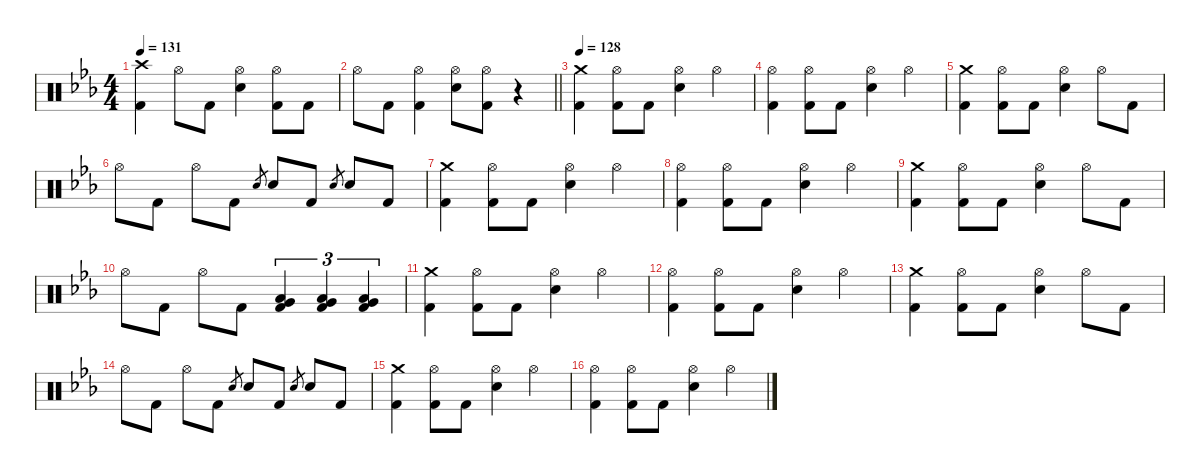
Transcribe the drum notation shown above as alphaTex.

\defaultSystemsLayout 4
\hideDynamics
\bracketExtendMode nobrackets
\singleTrackTrackNamePolicy hidden
\multiTrackTrackNamePolicy hidden
\firstSystemTrackNameMode fullname
\firstSystemTrackNameOrientation horizontal
\otherSystemsTrackNameOrientation horizontal
\track ("Drums" "drm.") {instrument percussion}
\staff {score}
\articulation defaults
\ts (4 4)
\tempo 131
\clef neutral
\ks cminor
("Crash high (hit)"{acc forcenatural} "Kick (hit) 2"{acc forcenatural}).4{dy f} "Hi-Hat (open)"{acc forcenatural}.8{dy mp} "Kick (hit) 2"{acc forcenatural}.8{dy f} ("Hi-Hat (open)"{acc forcenatural} "Snare (hit) 2"{acc forcenatural}).4{dy mp} ("Hi-Hat (open)"{acc forcenatural} "Kick (hit) 2"{acc forcenatural}).8 "Kick (hit) 2"{acc forcenatural}.8{dy f} |
\barLineRight lightlight "Hi-Hat (open)"{acc forcenatural}.8{dy mp} "Kick (hit) 2"{acc forcenatural}.8{dy f}
("Hi-Hat (open)"{acc forcenatural} "Kick (hit) 2"{acc forcenatural}).4{dy mp} ("Hi-Hat (open)"{acc forcenatural} "Snare (hit) 2"{acc forcenatural}).8 ("Hi-Hat (open)"{acc forcenatural} "Kick (hit) 2"{acc forcenatural}).8 r.4 |
\tempo 128
("Crash medium (hit)"{acc forcenatural} "Kick (hit) 2"{acc forcenatural}).4{dy f} ("Hi-Hat (open)"{acc forcenatural} "Kick (hit) 2"{acc forcenatural}).8{dy mp} "Kick (hit) 2"{acc forcenatural}.8{dy f} ("Hi-Hat (open)"{acc forcenatural} "Snare (hit) 2"{acc forcenatural}).4{dy mp} "Hi-Hat (open)"{acc forcenatural}.4 |
("Hi-Hat (open)"{acc forcenatural} "Kick (hit) 2"{acc forcenatural}).4 ("Hi-Hat (open)"{acc forcenatural} "Kick (hit) 2"{acc forcenatural}).8 "Kick (hit) 2"{acc forcenatural}.8{dy f} ("Hi-Hat (open)"{acc forcenatural} "Snare (hit) 2"{acc forcenatural}).4{dy mp} "Hi-Hat (open)"{acc forcenatural}.4 |
("Crash medium (hit)"{acc forcenatural} "Kick (hit) 2"{acc forcenatural}).4{dy f} ("Hi-Hat (open)"{acc forcenatural} "Kick (hit) 2"{acc forcenatural}).8{dy mp} "Kick (hit) 2"{acc forcenatural}.8{dy f} ("Hi-Hat (open)"{acc forcenatural} "Snare (hit) 2"{acc forcenatural}).4{dy mp} "Hi-Hat (open)"{acc forcenatural}.8 "Kick (hit) 2"{acc forcenatural}.8{dy f} |
"Hi-Hat (open)"{acc forcenatural}.8{dy mp} "Kick (hit) 2"{acc forcenatural}.8{dy f} "Hi-Hat (open)"{acc forcenatural}.8{dy mp} "Kick (hit) 2"{acc forcenatural}.8{dy f} "Electric Snare (hit)"{acc forcenatural}.8{gr dy mf} "Snare (hit) 2"{acc forcenatural}.8{dy f} "Kick (hit) 2"{acc forcenatural}.8 "Electric Snare (hit)"{acc forcenatural}.8{gr dy mf} "Snare (hit) 2"{acc forcenatural}.8{dy f} "Kick (hit) 2"{acc forcenatural}.8 |
("Crash medium (hit)"{acc forcenatural} "Kick (hit) 2"{acc forcenatural}).4 ("Hi-Hat (open)"{acc forcenatural} "Kick (hit) 2"{acc forcenatural}).8{dy mp} "Kick (hit) 2"{acc forcenatural}.8{dy f} ("Hi-Hat (open)"{acc forcenatural} "Snare (hit) 2"{acc forcenatural}).4{dy mp} "Hi-Hat (open)"{acc forcenatural}.4 |
("Hi-Hat (open)"{acc forcenatural} "Kick (hit) 2"{acc forcenatural}).4 ("Hi-Hat (open)"{acc forcenatural} "Kick (hit) 2"{acc forcenatural}).8 "Kick (hit) 2"{acc forcenatural}.8{dy f} ("Hi-Hat (open)"{acc forcenatural} "Snare (hit) 2"{acc forcenatural}).4{dy mp} "Hi-Hat (open)"{acc forcenatural}.4 |
("Crash medium (hit)"{acc forcenatural} "Kick (hit) 2"{acc forcenatural}).4{dy f} ("Hi-Hat (open)"{acc forcenatural} "Kick (hit) 2"{acc forcenatural}).8{dy mp} "Kick (hit) 2"{acc forcenatural}.8{dy f} ("Hi-Hat (open)"{acc forcenatural} "Snare (hit) 2"{acc forcenatural}).4{dy mp} "Hi-Hat (open)"{acc forcenatural}.8 "Kick (hit) 2"{acc forcenatural}.8{dy f} |
"Hi-Hat (open)"{acc forcenatural}.8{dy mp} "Kick (hit) 2"{acc forcenatural}.8{dy f} "Hi-Hat (open)"{acc forcenatural}.8{dy mp} "Kick (hit) 2"{acc forcenatural}.8{dy f} ("Low Tom (hit)"{acc forcenatural} "Very Low Tom (hit)"{acc forcenatural} "Kick (hit) 2"{acc forcenatural}).4{tu (3 2)} ("Low Tom (hit)"{acc forcenatural} "Very Low Tom (hit)"{acc forcenatural} "Kick (hit) 2"{acc forcenatural}).4{tu (3 2)} ("Low Tom (hit)"{acc forcenatural} "Very Low Tom (hit)"{acc forcenatural} "Kick (hit) 2"{acc forcenatural}).4{tu (3 2)} |
("Crash medium (hit)"{acc forcenatural} "Kick (hit) 2"{acc forcenatural}).4 ("Hi-Hat (open)"{acc forcenatural} "Kick (hit) 2"{acc forcenatural}).8{dy mp} "Kick (hit) 2"{acc forcenatural}.8{dy f} ("Hi-Hat (open)"{acc forcenatural} "Snare (hit) 2"{acc forcenatural}).4{dy mp} "Hi-Hat (open)"{acc forcenatural}.4 |
("Hi-Hat (open)"{acc forcenatural} "Kick (hit) 2"{acc forcenatural}).4 ("Hi-Hat (open)"{acc forcenatural} "Kick (hit) 2"{acc forcenatural}).8 "Kick (hit) 2"{acc forcenatural}.8{dy f} ("Hi-Hat (open)"{acc forcenatural} "Snare (hit) 2"{acc forcenatural}).4{dy mp} "Hi-Hat (open)"{acc forcenatural}.4 |
("Crash medium (hit)"{acc forcenatural} "Kick (hit) 2"{acc forcenatural}).4{dy f} ("Hi-Hat (open)"{acc forcenatural} "Kick (hit) 2"{acc forcenatural}).8{dy mp} "Kick (hit) 2"{acc forcenatural}.8{dy f} ("Hi-Hat (open)"{acc forcenatural} "Snare (hit) 2"{acc forcenatural}).4{dy mp} "Hi-Hat (open)"{acc forcenatural}.8 "Kick (hit) 2"{acc forcenatural}.8{dy f} |
"Hi-Hat (open)"{acc forcenatural}.8{dy mp} "Kick (hit) 2"{acc forcenatural}.8{dy f} "Hi-Hat (open)"{acc forcenatural}.8{dy mp} "Kick (hit) 2"{acc forcenatural}.8{dy f} "Electric Snare (hit)"{acc forcenatural}.8{gr dy mf} "Snare (hit) 2"{acc forcenatural}.8{dy f} "Kick (hit) 2"{acc forcenatural}.8 "Electric Snare (hit)"{acc forcenatural}.8{gr dy mf} "Snare (hit) 2"{acc forcenatural}.8{dy f} "Kick (hit) 2"{acc forcenatural}.8 |
("Crash medium (hit)"{acc forcenatural} "Kick (hit) 2"{acc forcenatural}).4 ("Hi-Hat (open)"{acc forcenatural} "Kick (hit) 2"{acc forcenatural}).8{dy mp} "Kick (hit) 2"{acc forcenatural}.8{dy f} ("Hi-Hat (open)"{acc forcenatural} "Snare (hit) 2"{acc forcenatural}).4{dy mp} "Hi-Hat (open)"{acc forcenatural}.4 |
("Hi-Hat (open)"{acc forcenatural} "Kick (hit) 2"{acc forcenatural}).4 ("Hi-Hat (open)"{acc forcenatural} "Kick (hit) 2"{acc forcenatural}).8 "Kick (hit) 2"{acc forcenatural}.8{dy f} ("Hi-Hat (open)"{acc forcenatural} "Snare (hit) 2"{acc forcenatural}).4{dy mp} "Hi-Hat (open)"{acc forcenatural}.4
